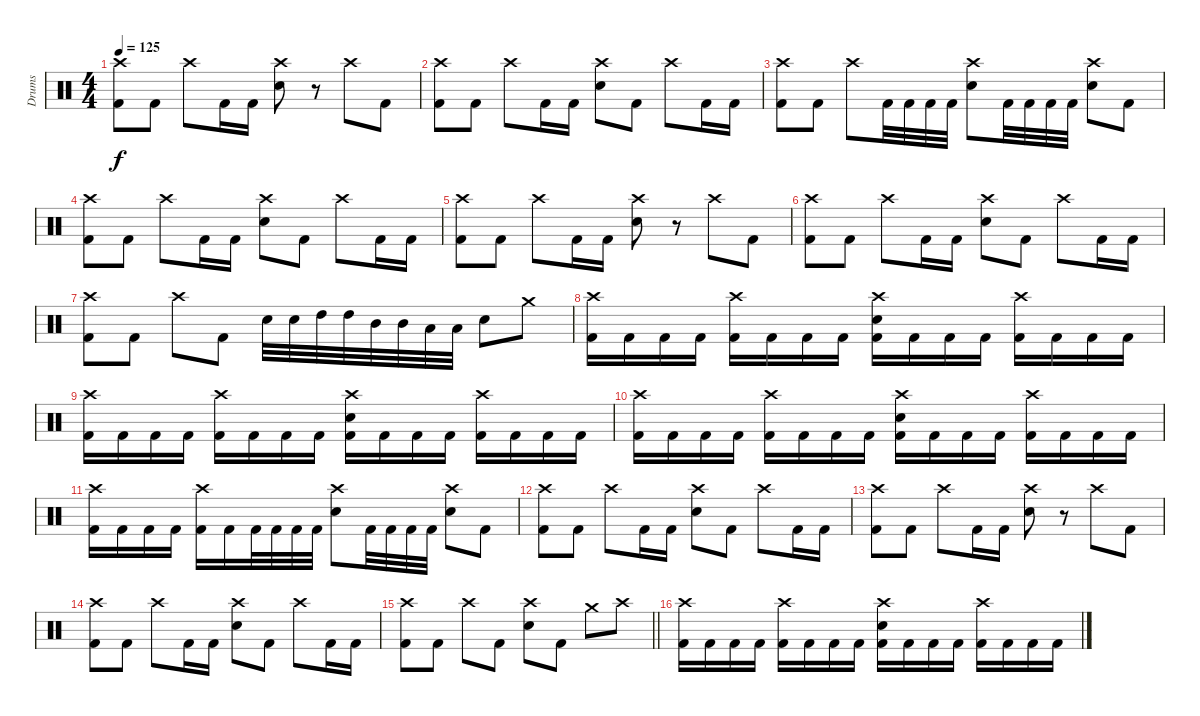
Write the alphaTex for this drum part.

\track ("Drums" "Drums") {instrument percussion}
\staff
\articulation defaults
\ts (4 4)
\tempo 125
\clef neutral
\ks c
("Crash high (hit)" "Kick (hit) 2").8{dy f} "Kick (hit) 2".8 "Crash high (hit)".8 "Kick (hit) 2".16 "Kick (hit) 2".16 ("Crash high (hit)" "Electric Snare (hit)").8 r.8 "Crash high (hit)".8 "Kick (hit) 2".8 |
("Crash high (hit)" "Kick (hit) 2").8 "Kick (hit) 2".8 "Crash high (hit)".8 "Kick (hit) 2".16 "Kick (hit) 2".16 ("Crash high (hit)" "Electric Snare (hit)").8 "Kick (hit) 2".8 "Crash high (hit)".8 "Kick (hit) 2".16 "Kick (hit) 2".16 |
("Crash high (hit)" "Kick (hit) 2").8 "Kick (hit) 2".8 "Crash high (hit)".8 "Kick (hit) 2".32 "Kick (hit) 2".32 "Kick (hit) 2".32 "Kick (hit) 2".32 ("Crash high (hit)" "Electric Snare (hit)").8 "Kick (hit) 2".32 "Kick (hit) 2".32 "Kick (hit) 2".32 "Kick (hit) 2".32 ("Crash high (hit)" "Electric Snare (hit)").8 "Kick (hit) 2".8 |
("Crash high (hit)" "Kick (hit) 2").8 "Kick (hit) 2".8 "Crash high (hit)".8 "Kick (hit) 2".16 "Kick (hit) 2".16 ("Crash high (hit)" "Electric Snare (hit)").8 "Kick (hit) 2".8 "Crash high (hit)".8 "Kick (hit) 2".16 "Kick (hit) 2".16 |
("Crash high (hit)" "Kick (hit) 2").8 "Kick (hit) 2".8 "Crash high (hit)".8 "Kick (hit) 2".16 "Kick (hit) 2".16 ("Crash high (hit)" "Electric Snare (hit)").8 r.8 "Crash high (hit)".8 "Kick (hit) 2".8 |
("Crash high (hit)" "Kick (hit) 2").8 "Kick (hit) 2".8 "Crash high (hit)".8 "Kick (hit) 2".16 "Kick (hit) 2".16 ("Crash high (hit)" "Electric Snare (hit)").8 "Kick (hit) 2".8 "Crash high (hit)".8 "Kick (hit) 2".16 "Kick (hit) 2".16 |
("Crash high (hit)" "Kick (hit) 2").8 "Kick (hit) 2".8 "Crash high (hit)".8 "Kick (hit) 2".8 "Electric Snare (hit)".32 "Electric Snare (hit)".32 "High Tom (hit)".32 "High Tom (hit)".32 "Mid Tom (hit)".32 "Mid Tom (hit)".32 "Low Tom (hit)".32 "Low Tom (hit)".32 "Electric Snare (hit)".8 "Crash medium (hit)".8 |
("Crash high (hit)" "Kick (hit) 2").16 "Kick (hit) 2".16 "Kick (hit) 2".16 "Kick (hit) 2".16 ("Crash high (hit)" "Kick (hit) 2").16 "Kick (hit) 2".16 "Kick (hit) 2".16 "Kick (hit) 2".16 ("Crash high (hit)" "Electric Snare (hit)" "Kick (hit) 2").16 "Kick (hit) 2".16 "Kick (hit) 2".16 "Kick (hit) 2".16 ("Crash high (hit)" "Kick (hit) 2").16 "Kick (hit) 2".16 "Kick (hit) 2".16 "Kick (hit) 2".16 |
("Crash high (hit)" "Kick (hit) 2").16 "Kick (hit) 2".16 "Kick (hit) 2".16 "Kick (hit) 2".16 ("Crash high (hit)" "Kick (hit) 2").16 "Kick (hit) 2".16 "Kick (hit) 2".16 "Kick (hit) 2".16 ("Crash high (hit)" "Electric Snare (hit)" "Kick (hit) 2").16 "Kick (hit) 2".16 "Kick (hit) 2".16 "Kick (hit) 2".16 ("Crash high (hit)" "Kick (hit) 2").16 "Kick (hit) 2".16 "Kick (hit) 2".16 "Kick (hit) 2".16 |
("Crash high (hit)" "Kick (hit) 2").16 "Kick (hit) 2".16 "Kick (hit) 2".16 "Kick (hit) 2".16 ("Crash high (hit)" "Kick (hit) 2").16 "Kick (hit) 2".16 "Kick (hit) 2".16 "Kick (hit) 2".16 ("Crash high (hit)" "Electric Snare (hit)" "Kick (hit) 2").16 "Kick (hit) 2".16 "Kick (hit) 2".16 "Kick (hit) 2".16 ("Crash high (hit)" "Kick (hit) 2").16 "Kick (hit) 2".16 "Kick (hit) 2".16 "Kick (hit) 2".16 |
("Crash high (hit)" "Kick (hit) 2").16 "Kick (hit) 2".16 "Kick (hit) 2".16 "Kick (hit) 2".16 ("Crash high (hit)" "Kick (hit) 2").16 "Kick (hit) 2".16 "Kick (hit) 2".32 "Kick (hit) 2".32 "Kick (hit) 2".32 "Kick (hit) 2".32 ("Crash high (hit)" "Electric Snare (hit)").8 "Kick (hit) 2".32 "Kick (hit) 2".32 "Kick (hit) 2".32 "Kick (hit) 2".32 ("Crash high (hit)" "Electric Snare (hit)").8 "Kick (hit) 2".8 |
("Crash high (hit)" "Kick (hit) 2").8 "Kick (hit) 2".8 "Crash high (hit)".8 "Kick (hit) 2".16 "Kick (hit) 2".16 ("Crash high (hit)" "Electric Snare (hit)").8 "Kick (hit) 2".8 "Crash high (hit)".8 "Kick (hit) 2".16 "Kick (hit) 2".16 |
("Crash high (hit)" "Kick (hit) 2").8 "Kick (hit) 2".8 "Crash high (hit)".8 "Kick (hit) 2".16 "Kick (hit) 2".16 ("Crash high (hit)" "Electric Snare (hit)").8 r.8 "Crash high (hit)".8 "Kick (hit) 2".8 |
("Crash high (hit)" "Kick (hit) 2").8 "Kick (hit) 2".8 "Crash high (hit)".8 "Kick (hit) 2".16 "Kick (hit) 2".16 ("Crash high (hit)" "Electric Snare (hit)").8 "Kick (hit) 2".8 "Crash high (hit)".8 "Kick (hit) 2".16 "Kick (hit) 2".16 |
\barLineRight lightlight
("Crash high (hit)" "Kick (hit) 2").8 "Kick (hit) 2".8 "Crash high (hit)".8 "Kick (hit) 2".8 ("Crash high (hit)" "Electric Snare (hit)").8 "Kick (hit) 2".8 "Crash medium (hit)".8 "Crash high (hit)".8 |
\section ("" "")
("Crash high (hit)" "Kick (hit) 2").16 "Kick (hit) 2".16 "Kick (hit) 2".16 "Kick (hit) 2".16 ("Crash high (hit)" "Kick (hit) 2").16 "Kick (hit) 2".16 "Kick (hit) 2".16 "Kick (hit) 2".16 ("Crash high (hit)" "Electric Snare (hit)" "Kick (hit) 2").16 "Kick (hit) 2".16 "Kick (hit) 2".16 "Kick (hit) 2".16 ("Crash high (hit)" "Kick (hit) 2").16 "Kick (hit) 2".16 "Kick (hit) 2".16 "Kick (hit) 2".16
